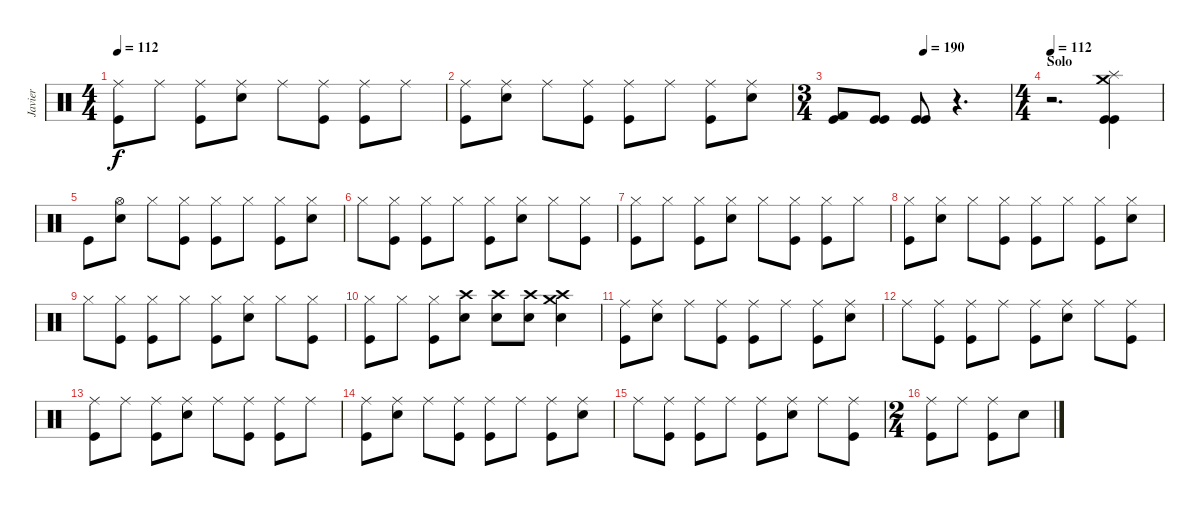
\track ("Javier" "Javier") {instrument percussion}
\staff {score}
\articulation defaults
\ts (4 4)
\tempo 112
\clef neutral
\ks c
("Ride (middle)" "Kick (hit)").8{dy f} "Ride (middle)".8 ("Ride (middle)" "Kick (hit)").8 ("Ride (middle)" "Snare (hit) 2").8 "Ride (middle)".8 ("Ride (middle)" "Kick (hit)").8 ("Ride (middle)" "Kick (hit)").8 "Ride (middle)".8 |
("Ride (middle)" "Kick (hit)").8 ("Ride (middle)" "Snare (hit) 2").8 "Ride (middle)".8 ("Ride (middle)" "Kick (hit)").8 ("Ride (middle)" "Kick (hit)").8 "Ride (middle)".8 ("Ride (middle)" "Kick (hit)").8 ("Ride (middle)" "Snare (hit) 2").8 |
\ts (3 4)
\tempo (190 0.5)
("Kick (hit)" "Kick (hit) 2").8 ("Kick (hit)" "Kick (hit)").8 ("Kick (hit)" "Kick (hit)").8 r.4{d} |
\ts (4 4)
\section ("" "Solo")
\tempo 112
r.2{d} ("Crash medium (hit)" "Splash (hit)" "Kick (hit)" "Kick (hit)").4 |
"Kick (hit)".8 ("Hi-Hat (open)" "Snare (hit) 2").8 "Hi-Hat (closed)".8 ("Hi-Hat (closed)" "Kick (hit)").8 ("Hi-Hat (closed)" "Kick (hit)").8 "Hi-Hat (closed)".8 ("Hi-Hat (closed)" "Kick (hit)").8 ("Hi-Hat (closed)" "Snare (hit) 2").8 |
"Hi-Hat (closed)".8 ("Hi-Hat (closed)" "Kick (hit)").8 ("Hi-Hat (closed)" "Kick (hit)").8 "Hi-Hat (closed)".8 ("Hi-Hat (closed)" "Kick (hit)").8 ("Hi-Hat (closed)" "Snare (hit) 2").8 "Hi-Hat (closed)".8 ("Hi-Hat (closed)" "Kick (hit)").8 |
("Hi-Hat (closed)" "Kick (hit)").8 "Hi-Hat (closed)".8 ("Hi-Hat (closed)" "Kick (hit)").8 ("Hi-Hat (closed)" "Snare (hit) 2").8 "Hi-Hat (closed)".8 ("Hi-Hat (closed)" "Kick (hit)").8 ("Hi-Hat (closed)" "Kick (hit)").8 "Hi-Hat (closed)".8 |
("Hi-Hat (closed)" "Kick (hit)").8 ("Hi-Hat (closed)" "Snare (hit) 2").8 "Hi-Hat (closed)".8 ("Hi-Hat (closed)" "Kick (hit)").8 ("Hi-Hat (closed)" "Kick (hit)").8 "Hi-Hat (closed)".8 ("Hi-Hat (closed)" "Kick (hit)").8 ("Hi-Hat (closed)" "Snare (hit) 2").8 |
"Hi-Hat (closed)".8 ("Hi-Hat (closed)" "Kick (hit)").8 ("Hi-Hat (closed)" "Kick (hit)").8 "Hi-Hat (closed)".8 ("Hi-Hat (closed)" "Kick (hit)").8 ("Hi-Hat (closed)" "Snare (hit) 2").8 "Hi-Hat (closed)".8 ("Hi-Hat (closed)" "Kick (hit)").8 |
("Hi-Hat (closed)" "Kick (hit)").8 "Hi-Hat (closed)".8 ("Hi-Hat (closed)" "Kick (hit)").8 ("Crash high (hit)" "Snare (hit) 2").8 ("Crash high (hit)" "Snare (hit) 2").8 ("Crash high (hit)" "Snare (hit) 2").8 ("Crash medium (hit)" "Crash high (hit)" "Snare (hit) 2").4 |
("Ride (middle)" "Kick (hit)").8 ("Ride (middle)" "Snare (hit) 2").8 "Ride (middle)".8 ("Ride (middle)" "Kick (hit)").8 ("Ride (middle)" "Kick (hit)").8 "Ride (middle)".8 ("Ride (middle)" "Kick (hit)").8 ("Ride (middle)" "Snare (hit) 2").8 |
"Ride (middle)".8 ("Ride (middle)" "Kick (hit)").8 ("Ride (middle)" "Kick (hit)").8 "Ride (middle)".8 ("Ride (middle)" "Kick (hit)").8 ("Ride (middle)" "Snare (hit) 2").8 "Ride (middle)".8 ("Ride (middle)" "Kick (hit)").8 |
("Ride (middle)" "Kick (hit)").8 "Ride (middle)".8 ("Ride (middle)" "Kick (hit)").8 ("Ride (middle)" "Snare (hit) 2").8 "Ride (middle)".8 ("Ride (middle)" "Kick (hit)").8 ("Ride (middle)" "Kick (hit)").8 "Ride (middle)".8 |
("Ride (middle)" "Kick (hit)").8 ("Ride (middle)" "Snare (hit) 2").8 "Ride (middle)".8 ("Ride (middle)" "Kick (hit)").8 ("Ride (middle)" "Kick (hit)").8 "Ride (middle)".8 ("Ride (middle)" "Kick (hit)").8 ("Ride (middle)" "Snare (hit) 2").8 |
"Ride (middle)".8 ("Ride (middle)" "Kick (hit)").8 ("Ride (middle)" "Kick (hit)").8 "Ride (middle)".8 ("Ride (middle)" "Kick (hit)").8 ("Ride (middle)" "Snare (hit) 2").8 "Ride (middle)".8 ("Ride (middle)" "Kick (hit)").8 |
\ts (2 4)
("Ride (middle)" "Kick (hit)").8 "Ride (middle)".8 ("Ride (middle)" "Kick (hit)").8 "Snare (hit) 2".8
